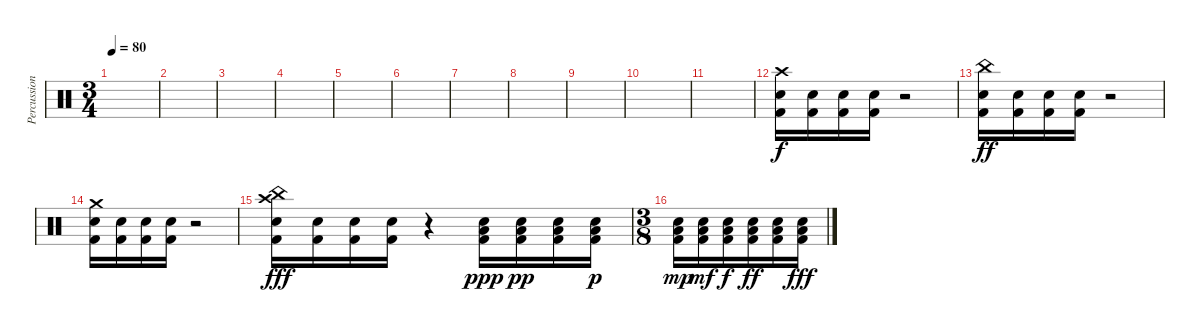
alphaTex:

\track ("Percussion" "Percussion") {instrument percussion}
\staff {score}
\articulation defaults
\ts (3 4)
\tempo 80
\clef neutral
\ks c
|
|
|
|
|
|
|
|
|
|
|
("Crash high (hit)" "Electric Snare (hit)" "Kick (hit) 2").16 ("Electric Snare (hit)" "Kick (hit) 2").16 ("Electric Snare (hit)" "Kick (hit) 2").16 ("Electric Snare (hit)" "Kick (hit) 2").16 r.2 |
("China (hit)" "Electric Snare (hit)" "Kick (hit) 2").16{dy ff} ("Electric Snare (hit)" "Kick (hit) 2").16 ("Electric Snare (hit)" "Kick (hit) 2").16 ("Electric Snare (hit)" "Kick (hit) 2").16 r.2 |
("Crash medium (hit)" "Electric Snare (hit)" "Kick (hit) 2").16 ("Electric Snare (hit)" "Kick (hit) 2").16 ("Electric Snare (hit)" "Kick (hit) 2").16 ("Electric Snare (hit)" "Kick (hit) 2").16 r.2 |
("China (hit)" "Crash high (hit)" "Electric Snare (hit)" "Kick (hit) 2").16{dy fff} ("Electric Snare (hit)" "Kick (hit) 2").16 ("Electric Snare (hit)" "Kick (hit) 2").16 ("Electric Snare (hit)" "Kick (hit) 2").16 r.4 ("Low Tom (hit)" "Electric Snare (hit)" "Kick (hit) 2").16{dy ppp} ("Low Tom (hit)" "Electric Snare (hit)" "Kick (hit) 2").16{dy pp} ("Low Tom (hit)" "Electric Snare (hit)" "Kick (hit) 2").16 ("Low Tom (hit)" "Electric Snare (hit)" "Kick (hit) 2").16{dy p} |
\ts (3 8)
("Low Tom (hit)" "Electric Snare (hit)" "Kick (hit) 2").16{dy mp} ("Low Tom (hit)" "Electric Snare (hit)" "Kick (hit) 2").16{dy mf} ("Low Tom (hit)" "Electric Snare (hit)" "Kick (hit) 2").16{dy f} ("Low Tom (hit)" "Electric Snare (hit)" "Kick (hit) 2").16{dy ff} ("Low Tom (hit)" "Electric Snare (hit)" "Kick (hit) 2").16 ("Low Tom (hit)" "Electric Snare (hit)" "Kick (hit) 2").16{dy fff}
